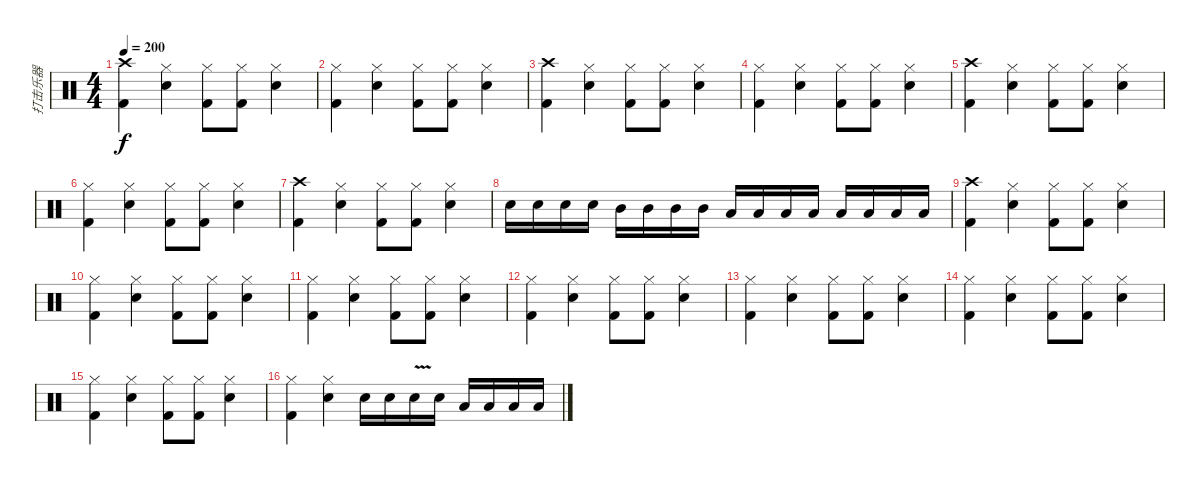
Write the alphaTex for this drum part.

\track ("打击乐器" "打击乐器") {instrument percussion}
\staff {score}
\articulation defaults
\ts (4 4)
\tempo 200
\clef neutral
\ks c
("Crash high (hit)" "Kick (hit) 2").4{dy f} ("Hi-Hat (closed)" "Snare (hit) 2").4 ("Hi-Hat (closed)" "Kick (hit) 2").8 ("Hi-Hat (closed)" "Kick (hit) 2").8 ("Hi-Hat (closed)" "Snare (hit) 2").4 |
("Hi-Hat (closed)" "Kick (hit) 2").4 ("Hi-Hat (closed)" "Snare (hit) 2").4 ("Hi-Hat (closed)" "Kick (hit) 2").8 ("Hi-Hat (closed)" "Kick (hit) 2").8 ("Hi-Hat (closed)" "Snare (hit) 2").4 |
("Crash high (hit)" "Kick (hit) 2").4 ("Hi-Hat (closed)" "Snare (hit) 2").4 ("Hi-Hat (closed)" "Kick (hit) 2").8 ("Hi-Hat (closed)" "Kick (hit) 2").8 ("Hi-Hat (closed)" "Snare (hit) 2").4 |
("Hi-Hat (closed)" "Kick (hit) 2").4 ("Hi-Hat (closed)" "Snare (hit) 2").4 ("Hi-Hat (closed)" "Kick (hit) 2").8 ("Hi-Hat (closed)" "Kick (hit) 2").8 ("Hi-Hat (closed)" "Snare (hit) 2").4 |
("Crash high (hit)" "Kick (hit) 2").4 ("Hi-Hat (closed)" "Snare (hit) 2").4 ("Hi-Hat (closed)" "Kick (hit) 2").8 ("Hi-Hat (closed)" "Kick (hit) 2").8 ("Hi-Hat (closed)" "Snare (hit) 2").4 |
("Hi-Hat (closed)" "Kick (hit) 2").4 ("Hi-Hat (closed)" "Snare (hit) 2").4 ("Hi-Hat (closed)" "Kick (hit) 2").8 ("Hi-Hat (closed)" "Kick (hit) 2").8 ("Hi-Hat (closed)" "Snare (hit) 2").4 |
("Crash high (hit)" "Kick (hit) 2").4 ("Hi-Hat (closed)" "Snare (hit) 2").4 ("Hi-Hat (closed)" "Kick (hit) 2").8 ("Hi-Hat (closed)" "Kick (hit) 2").8 ("Hi-Hat (closed)" "Snare (hit) 2").4 |
"Snare (hit) 2".16 "Snare (hit) 2".16 "Snare (hit) 2".16 "Snare (hit) 2".16 "Mid Tom (hit)".16 "Mid Tom (hit)".16 "Mid Tom (hit)".16 "Mid Tom (hit)".16 "Low Tom (hit)".16 "Low Tom (hit)".16 "Low Tom (hit)".16 "Low Tom (hit)".16 "Low Floor Tom (hit)".16 "Low Floor Tom (hit)".16 "Low Floor Tom (hit)".16 "Low Floor Tom (hit)".16 |
("Crash high (hit)" "Kick (hit) 2").4 ("Hi-Hat (closed)" "Snare (hit) 2").4 ("Hi-Hat (closed)" "Kick (hit) 2").8 ("Hi-Hat (closed)" "Kick (hit) 2").8 ("Hi-Hat (closed)" "Snare (hit) 2").4 |
("Hi-Hat (closed)" "Kick (hit) 2").4 ("Hi-Hat (closed)" "Snare (hit) 2").4 ("Hi-Hat (closed)" "Kick (hit) 2").8 ("Hi-Hat (closed)" "Kick (hit) 2").8 ("Hi-Hat (closed)" "Snare (hit) 2").4 |
("Hi-Hat (closed)" "Kick (hit) 2").4 ("Hi-Hat (closed)" "Snare (hit) 2").4 ("Hi-Hat (closed)" "Kick (hit) 2").8 ("Hi-Hat (closed)" "Kick (hit) 2").8 ("Hi-Hat (closed)" "Snare (hit) 2").4 |
("Hi-Hat (closed)" "Kick (hit) 2").4 ("Hi-Hat (closed)" "Snare (hit) 2").4 ("Hi-Hat (closed)" "Kick (hit) 2").8 ("Hi-Hat (closed)" "Kick (hit) 2").8 ("Hi-Hat (closed)" "Snare (hit) 2").4 |
("Hi-Hat (closed)" "Kick (hit) 2").4 ("Hi-Hat (closed)" "Snare (hit) 2").4 ("Hi-Hat (closed)" "Kick (hit) 2").8 ("Hi-Hat (closed)" "Kick (hit) 2").8 ("Hi-Hat (closed)" "Snare (hit) 2").4 |
("Hi-Hat (closed)" "Kick (hit) 2").4 ("Hi-Hat (closed)" "Snare (hit) 2").4 ("Hi-Hat (closed)" "Kick (hit) 2").8 ("Hi-Hat (closed)" "Kick (hit) 2").8 ("Hi-Hat (closed)" "Snare (hit) 2").4 |
("Hi-Hat (closed)" "Kick (hit) 2").4 ("Hi-Hat (closed)" "Snare (hit) 2").4 ("Hi-Hat (closed)" "Kick (hit) 2").8 ("Hi-Hat (closed)" "Kick (hit) 2").8 ("Hi-Hat (closed)" "Snare (hit) 2").4 |
("Hi-Hat (closed)" "Kick (hit) 2").4 ("Hi-Hat (closed)" "Snare (hit) 2").4 "Snare (hit) 2".16 "Snare (hit) 2".16 "Snare (hit) 2"{v}.16 "Snare (hit) 2".16 "Low Floor Tom (hit)".16 "Low Floor Tom (hit)".16 "Low Tom (hit)".16 "Low Tom (hit)".16
